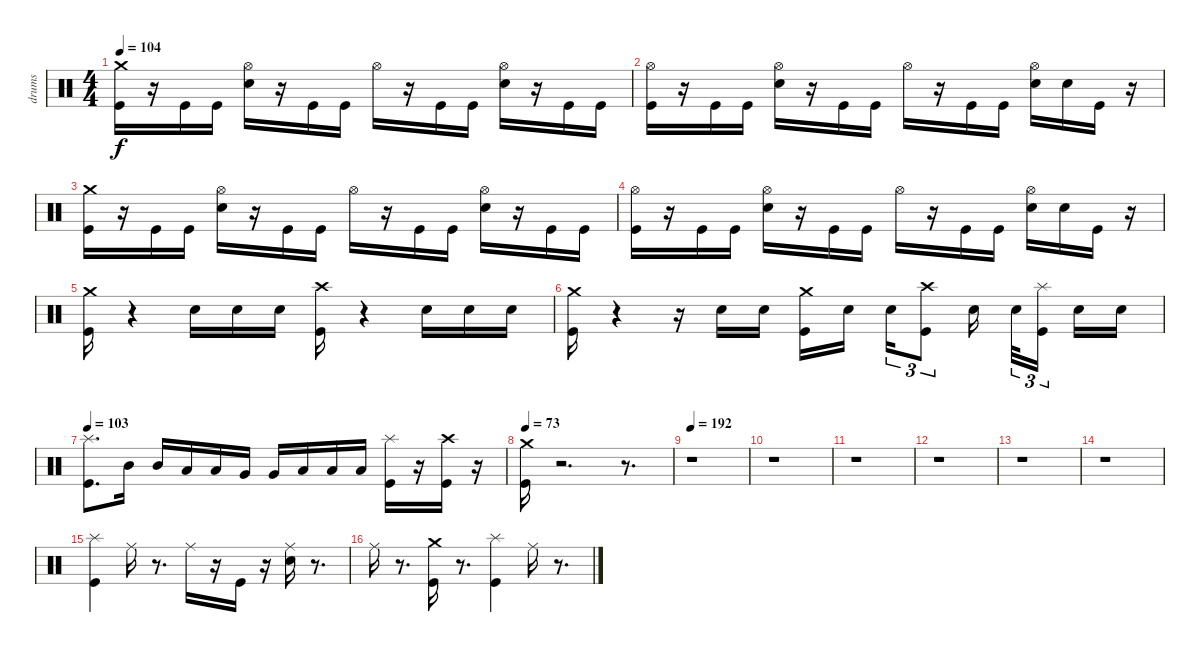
\track ("drums" "drums") {instrument percussion}
\staff {score}
\articulation defaults
\ts (4 4)
\tempo 104
\clef neutral
\ks c
("Crash medium (hit)" "Kick (hit)").16{dy f} r.16 "Kick (hit)".16 "Kick (hit)".16 ("Hi-Hat (open)" "Electric Snare (hit)").16 r.16 "Kick (hit)".16 "Kick (hit)".16 "Hi-Hat (open)".16 r.16 "Kick (hit)".16 "Kick (hit)".16 ("Hi-Hat (open)" "Electric Snare (hit)").16 r.16 "Kick (hit)".16 "Kick (hit)".16 |
("Hi-Hat (open)" "Kick (hit)").16 r.16 "Kick (hit)".16 "Kick (hit)".16 ("Hi-Hat (open)" "Electric Snare (hit)").16 r.16 "Kick (hit)".16 "Kick (hit)".16 "Hi-Hat (open)".16 r.16 "Kick (hit)".16 "Kick (hit)".16 ("Hi-Hat (open)" "Electric Snare (hit)").16 "Electric Snare (hit)".16 "Kick (hit)".16 r.16 |
("Crash medium (hit)" "Kick (hit)").16 r.16 "Kick (hit)".16 "Kick (hit)".16 ("Hi-Hat (open)" "Electric Snare (hit)").16 r.16 "Kick (hit)".16 "Kick (hit)".16 "Hi-Hat (open)".16 r.16 "Kick (hit)".16 "Kick (hit)".16 ("Hi-Hat (open)" "Electric Snare (hit)").16 r.16 "Kick (hit)".16 "Kick (hit)".16 |
("Hi-Hat (open)" "Kick (hit)").16 r.16 "Kick (hit)".16 "Kick (hit)".16 ("Hi-Hat (open)" "Electric Snare (hit)").16 r.16 "Kick (hit)".16 "Kick (hit)".16 "Hi-Hat (open)".16 r.16 "Kick (hit)".16 "Kick (hit)".16 ("Hi-Hat (open)" "Electric Snare (hit)").16 "Electric Snare (hit)".16 "Kick (hit)".16 r.16 |
("Crash medium (hit)" "Kick (hit)").16 r.4 "Electric Snare (hit)".16 "Electric Snare (hit)".16 "Electric Snare (hit)".16 ("Crash high (hit)" "Kick (hit)").16 r.4 "Electric Snare (hit)".16 "Electric Snare (hit)".16 "Electric Snare (hit)".16 |
("Crash medium (hit)" "Kick (hit)").16 r.4 r.16 "Electric Snare (hit)".16 "Electric Snare (hit)".16 ("Crash medium (hit)" "Kick (hit)").16 "Electric Snare (hit)".16 "Electric Snare (hit)".16{tu (3 2)} ("Crash high (hit)" "Kick (hit)").8{tu (3 2)} "Electric Snare (hit)".16 "Electric Snare (hit)".32{tu (3 2)} ("Splash (hit)" "Kick (hit)").16{tu (3 2)} "Electric Snare (hit)".16 "Electric Snare (hit)".16 |
\tempo 103
("Splash (hit)" "Kick (hit)").8{d} "Mid Tom (hit)".16 "Mid Tom (hit)".16 "Low Tom (hit)".16 "Low Tom (hit)".16 "Very Low Tom (hit)".16 "Very Low Tom (hit)".16 "Low Floor Tom (hit)".16 "Low Floor Tom (hit)".16 "Low Floor Tom (hit)".16 ("Splash (hit)" "Kick (hit)").16 r.16 ("Crash high (hit)" "Kick (hit)").16 r.16 |
\tempo 73
("Crash medium (hit)" "Kick (hit)").16 r.2{d} r.8{d} |
\tempo 192
r.1 |
r.1 |
r.1 |
r.1 |
r.1 |
r.1 |
("Splash (hit)" "Kick (hit)").4 "Ride (middle)".16 r.8{d} "Ride (middle)".16 r.16 "Kick (hit)".16 r.16 ("Ride (middle)" "Snare (hit) 2").16 r.8{d} |
"Ride (middle)".16 r.8{d} ("Kick (hit)" "Crash medium (hit)").16 r.8{d} ("Splash (hit)" "Kick (hit)").4 "Ride (middle)".16 r.8{d}
